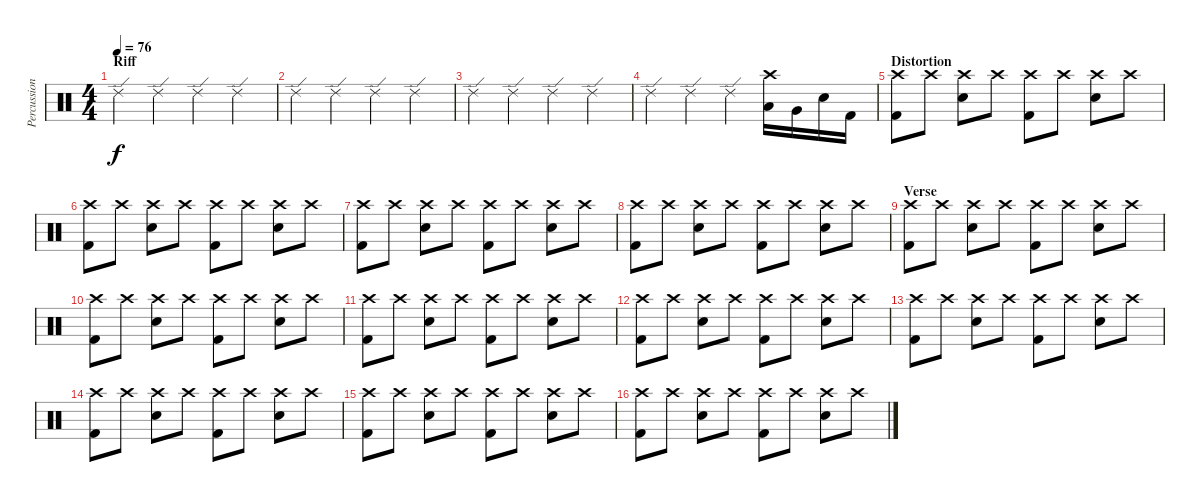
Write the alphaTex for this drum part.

\track ("Percussion" "Percussion") {instrument percussion}
\staff {score}
\articulation defaults
\ts (4 4)
\section ("" "Riff")
\tempo 76
\clef neutral
\ks c "Ride (edge) 2".4{dy f} "Ride (edge) 2".4 "Ride (edge) 2".4 "Ride (edge) 2".4
|
"Ride (edge) 2".4 "Ride (edge) 2".4 "Ride (edge) 2".4 "Ride (edge) 2".4 |
"Ride (edge) 2".4 "Ride (edge) 2".4 "Ride (edge) 2".4 "Ride (edge) 2".4 |
"Ride (edge) 2".4 "Ride (edge) 2".4 "Ride (edge) 2".4 ("Crash high (hit)" "Low Tom (hit)").16 "Very Low Tom (hit)".16 "Electric Snare (hit)".16 "Kick (hit) 2".16 |
\section ("" "Distortion")
("Crash high (hit)" "Kick (hit) 2").8 "Crash high (hit)".8 ("Crash high (hit)" "Electric Snare (hit)").8 "Crash high (hit)".8 ("Crash high (hit)" "Kick (hit) 2").8 "Crash high (hit)".8 ("Crash high (hit)" "Electric Snare (hit)").8 "Crash high (hit)".8 |
("Crash high (hit)" "Kick (hit) 2").8 "Crash high (hit)".8 ("Crash high (hit)" "Electric Snare (hit)").8 "Crash high (hit)".8 ("Crash high (hit)" "Kick (hit) 2").8 "Crash high (hit)".8 ("Crash high (hit)" "Electric Snare (hit)").8 "Crash high (hit)".8 |
("Crash high (hit)" "Kick (hit) 2").8 "Crash high (hit)".8 ("Crash high (hit)" "Electric Snare (hit)").8 "Crash high (hit)".8 ("Crash high (hit)" "Kick (hit) 2").8 "Crash high (hit)".8 ("Crash high (hit)" "Electric Snare (hit)").8 "Crash high (hit)".8 |
("Crash high (hit)" "Kick (hit) 2").8 "Crash high (hit)".8 ("Crash high (hit)" "Electric Snare (hit)").8 "Crash high (hit)".8 ("Crash high (hit)" "Kick (hit) 2").8 "Crash high (hit)".8 ("Crash high (hit)" "Electric Snare (hit)").8 "Crash high (hit)".8 |
\section ("" "Verse")
("Crash high (hit)" "Kick (hit) 2").8 "Crash high (hit)".8 ("Crash high (hit)" "Electric Snare (hit)").8 "Crash high (hit)".8 ("Crash high (hit)" "Kick (hit) 2").8 "Crash high (hit)".8 ("Crash high (hit)" "Electric Snare (hit)").8 "Crash high (hit)".8 |
("Crash high (hit)" "Kick (hit) 2").8 "Crash high (hit)".8 ("Crash high (hit)" "Electric Snare (hit)").8 "Crash high (hit)".8 ("Crash high (hit)" "Kick (hit) 2").8 "Crash high (hit)".8 ("Crash high (hit)" "Electric Snare (hit)").8 "Crash high (hit)".8 |
("Crash high (hit)" "Kick (hit) 2").8 "Crash high (hit)".8 ("Crash high (hit)" "Electric Snare (hit)").8 "Crash high (hit)".8 ("Crash high (hit)" "Kick (hit) 2").8 "Crash high (hit)".8 ("Crash high (hit)" "Electric Snare (hit)").8 "Crash high (hit)".8 |
("Crash high (hit)" "Kick (hit) 2").8 "Crash high (hit)".8 ("Crash high (hit)" "Electric Snare (hit)").8 "Crash high (hit)".8 ("Crash high (hit)" "Kick (hit) 2").8 "Crash high (hit)".8 ("Crash high (hit)" "Electric Snare (hit)").8 "Crash high (hit)".8 |
("Crash high (hit)" "Kick (hit) 2").8 "Crash high (hit)".8 ("Crash high (hit)" "Electric Snare (hit)").8 "Crash high (hit)".8 ("Crash high (hit)" "Kick (hit) 2").8 "Crash high (hit)".8 ("Crash high (hit)" "Electric Snare (hit)").8 "Crash high (hit)".8 |
("Crash high (hit)" "Kick (hit) 2").8 "Crash high (hit)".8 ("Crash high (hit)" "Electric Snare (hit)").8 "Crash high (hit)".8 ("Crash high (hit)" "Kick (hit) 2").8 "Crash high (hit)".8 ("Crash high (hit)" "Electric Snare (hit)").8 "Crash high (hit)".8 |
("Crash high (hit)" "Kick (hit) 2").8 "Crash high (hit)".8 ("Crash high (hit)" "Electric Snare (hit)").8 "Crash high (hit)".8 ("Crash high (hit)" "Kick (hit) 2").8 "Crash high (hit)".8 ("Crash high (hit)" "Electric Snare (hit)").8 "Crash high (hit)".8 |
("Crash high (hit)" "Kick (hit) 2").8 "Crash high (hit)".8 ("Crash high (hit)" "Electric Snare (hit)").8 "Crash high (hit)".8 ("Crash high (hit)" "Kick (hit) 2").8 "Crash high (hit)".8 ("Crash high (hit)" "Electric Snare (hit)").8 "Crash high (hit)".8
